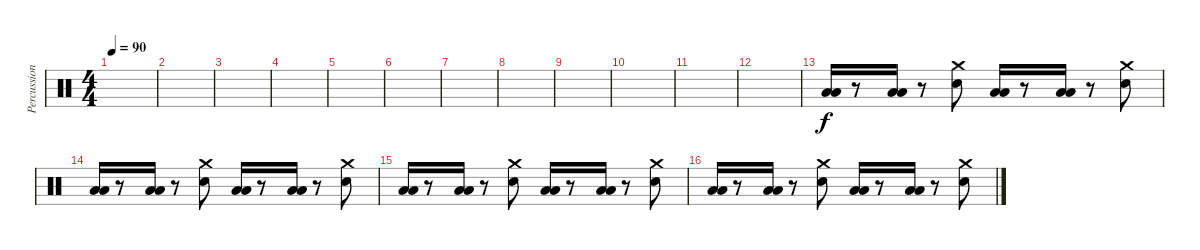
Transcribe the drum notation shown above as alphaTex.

\track ("Percussions" "Percussion") {instrument percussion}
\staff {score}
\articulation defaults
\ts (4 4)
\tempo 90
\clef neutral
\ks c
|
|
|
|
|
|
|
|
|
|
|
|
("Low Floor Tom (hit)" "Low Floor Tom (hit)").16 r.8 ("Low Floor Tom (hit)" "Low Floor Tom (hit)").16 r.8 ("Snare (hit) 2" "Crash medium (hit)").8 ("Low Floor Tom (hit)" "Low Floor Tom (hit)").16 r.8 ("Low Floor Tom (hit)" "Low Floor Tom (hit)").16 r.8 ("Snare (hit) 2" "Crash medium (hit)").8 |
("Low Floor Tom (hit)" "Low Floor Tom (hit)").16 r.8 ("Low Floor Tom (hit)" "Low Floor Tom (hit)").16 r.8 ("Snare (hit) 2" "Crash medium (hit)").8 ("Low Floor Tom (hit)" "Low Floor Tom (hit)").16 r.8 ("Low Floor Tom (hit)" "Low Floor Tom (hit)").16 r.8 ("Snare (hit) 2" "Crash medium (hit)").8 |
("Low Floor Tom (hit)" "Low Floor Tom (hit)").16 r.8 ("Low Floor Tom (hit)" "Low Floor Tom (hit)").16 r.8 ("Snare (hit) 2" "Crash medium (hit)").8 ("Low Floor Tom (hit)" "Low Floor Tom (hit)").16 r.8 ("Low Floor Tom (hit)" "Low Floor Tom (hit)").16 r.8 ("Snare (hit) 2" "Crash medium (hit)").8 |
("Low Floor Tom (hit)" "Low Floor Tom (hit)").16 r.8 ("Low Floor Tom (hit)" "Low Floor Tom (hit)").16 r.8 ("Snare (hit) 2" "Crash medium (hit)").8 ("Low Floor Tom (hit)" "Low Floor Tom (hit)").16 r.8 ("Low Floor Tom (hit)" "Low Floor Tom (hit)").16 r.8 ("Snare (hit) 2" "Crash medium (hit)").8
